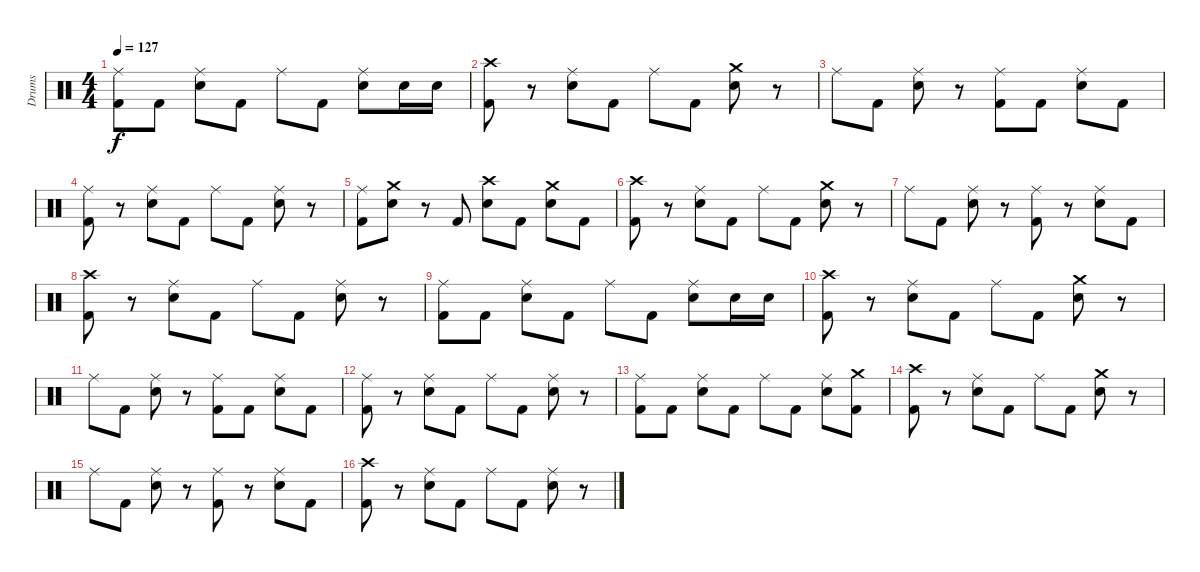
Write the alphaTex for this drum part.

\track ("Drums" "Drums") {instrument percussion}
\staff {score}
\articulation defaults
\ts (4 4)
\tempo 127
\clef neutral
\ks c
("Ride (middle)" "Kick (hit) 2").8{dy f} "Kick (hit) 2".8 ("Ride (middle)" "Electric Snare (hit)").8 "Kick (hit) 2".8 "Ride (middle)".8 "Kick (hit) 2".8 ("Ride (middle)" "Electric Snare (hit)").8 "Electric Snare (hit)".16 "Electric Snare (hit)".16 |
("Crash high (hit)" "Kick (hit) 2").8 r.8 ("Ride (middle)" "Electric Snare (hit)").8 "Kick (hit) 2".8 "Ride (middle)".8 "Kick (hit) 2".8 ("Crash medium (hit)" "Electric Snare (hit)").8 r.8 |
"Ride (middle)".8 "Kick (hit) 2".8 ("Ride (middle)" "Electric Snare (hit)").8 r.8 ("Ride (middle)" "Kick (hit) 2").8 "Kick (hit) 2".8 ("Ride (middle)" "Electric Snare (hit)").8 "Kick (hit) 2".8 |
("Ride (middle)" "Kick (hit) 2").8 r.8 ("Ride (middle)" "Electric Snare (hit)").8 "Kick (hit) 2".8 "Ride (middle)".8 "Kick (hit) 2".8 ("Ride (middle)" "Electric Snare (hit)").8 r.8 |
("Ride (middle)" "Kick (hit) 2").8 ("Crash medium (hit)" "Electric Snare (hit)").8 r.8 "Kick (hit) 2".8 ("Crash high (hit)" "Electric Snare (hit)").8 "Kick (hit) 2".8 ("Crash medium (hit)" "Electric Snare (hit)").8 "Kick (hit) 2".8 |
("Crash high (hit)" "Kick (hit) 2").8 r.8 ("Ride (middle)" "Electric Snare (hit)").8 "Kick (hit) 2".8 "Ride (middle)".8 "Kick (hit) 2".8 ("Crash medium (hit)" "Electric Snare (hit)").8 r.8 |
"Ride (middle)".8 "Kick (hit) 2".8 ("Ride (middle)" "Electric Snare (hit)").8 r.8 ("Ride (middle)" "Kick (hit) 2").8 r.8 ("Ride (middle)" "Electric Snare (hit)").8 "Kick (hit) 2".8 |
("Crash high (hit)" "Kick (hit) 2").8 r.8 ("Ride (middle)" "Electric Snare (hit)").8 "Kick (hit) 2".8 "Ride (middle)".8 "Kick (hit) 2".8 ("Ride (middle)" "Electric Snare (hit)").8 r.8 |
("Ride (middle)" "Kick (hit) 2").8 "Kick (hit) 2".8 ("Ride (middle)" "Electric Snare (hit)").8 "Kick (hit) 2".8 "Ride (middle)".8 "Kick (hit) 2".8 ("Ride (middle)" "Electric Snare (hit)").8 "Electric Snare (hit)".16 "Electric Snare (hit)".16 |
("Crash high (hit)" "Kick (hit) 2").8 r.8 ("Ride (middle)" "Electric Snare (hit)").8 "Kick (hit) 2".8 "Ride (middle)".8 "Kick (hit) 2".8 ("Crash medium (hit)" "Electric Snare (hit)").8 r.8 |
"Ride (middle)".8 "Kick (hit) 2".8 ("Ride (middle)" "Electric Snare (hit)").8 r.8 ("Ride (middle)" "Kick (hit) 2").8 "Kick (hit) 2".8 ("Ride (middle)" "Electric Snare (hit)").8 "Kick (hit) 2".8 |
("Ride (middle)" "Kick (hit) 2").8 r.8 ("Ride (middle)" "Electric Snare (hit)").8 "Kick (hit) 2".8 "Ride (middle)".8 "Kick (hit) 2".8 ("Ride (middle)" "Electric Snare (hit)").8 r.8 |
("Ride (middle)" "Kick (hit) 2").8 "Kick (hit) 2".8 ("Ride (middle)" "Electric Snare (hit)").8 "Kick (hit) 2".8 "Ride (middle)".8 "Kick (hit) 2".8 ("Ride (middle)" "Electric Snare (hit)").8 ("Crash medium (hit)" "Kick (hit) 2").8 |
("Crash high (hit)" "Kick (hit) 2").8 r.8 ("Ride (middle)" "Electric Snare (hit)").8 "Kick (hit) 2".8 "Ride (middle)".8 "Kick (hit) 2".8 ("Crash medium (hit)" "Electric Snare (hit)").8 r.8 |
"Ride (middle)".8 "Kick (hit) 2".8 ("Ride (middle)" "Electric Snare (hit)").8 r.8 ("Ride (middle)" "Kick (hit) 2").8 r.8 ("Ride (middle)" "Electric Snare (hit)").8 "Kick (hit) 2".8 |
("Crash high (hit)" "Kick (hit) 2").8 r.8 ("Ride (middle)" "Electric Snare (hit)").8 "Kick (hit) 2".8 "Ride (middle)".8 "Kick (hit) 2".8 ("Ride (middle)" "Electric Snare (hit)").8 r.8
